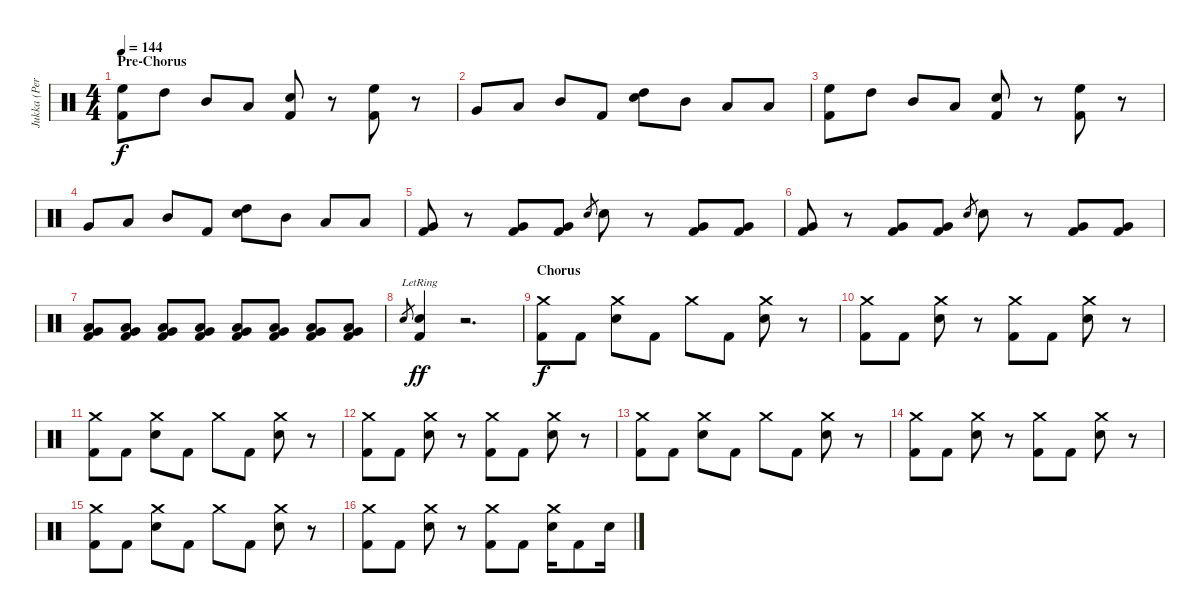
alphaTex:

\track ("Jukka (Percussion)" "Jukka (Per") {instrument percussion}
\staff {score}
\articulation defaults
\ts (4 4)
\section ("" "Pre-Chorus")
\tempo 144
\clef neutral
\ks c
("High Floor Tom (hit)" "Kick (hit) 2").8{dy f} "High Tom (hit)".8 "Mid Tom (hit)".8 "Low Tom (hit)".8 ("Electric Snare (hit)" "Kick (hit) 2").8 r.8 ("High Floor Tom (hit)" "Kick (hit) 2").8 r.8 |
"Very Low Tom (hit)".8 "Low Tom (hit)".8 "Mid Tom (hit)".8 "Kick (hit) 2".8 ("High Tom (hit)" "Electric Snare (hit)").8 "Mid Tom (hit)".8 "Low Tom (hit)".8 "Low Floor Tom (hit)".8 |
("High Floor Tom (hit)" "Kick (hit) 2").8 "High Tom (hit)".8 "Mid Tom (hit)".8 "Low Tom (hit)".8 ("Electric Snare (hit)" "Kick (hit) 2").8 r.8 ("High Floor Tom (hit)" "Kick (hit) 2").8 r.8 |
"Very Low Tom (hit)".8 "Low Tom (hit)".8 "Mid Tom (hit)".8 "Kick (hit) 2".8 ("High Tom (hit)" "Electric Snare (hit)").8 "Mid Tom (hit)".8 "Low Tom (hit)".8 "Low Floor Tom (hit)".8 |
("Very Low Tom (hit)" "Kick (hit) 2").8 r.8 ("Very Low Tom (hit)" "Kick (hit) 2").8 ("Very Low Tom (hit)" "Kick (hit) 2").8 "Electric Snare (hit)".8{gr} "Electric Snare (hit)".8 r.8 ("Very Low Tom (hit)" "Kick (hit) 2").8 ("Very Low Tom (hit)" "Kick (hit) 2").8 |
("Very Low Tom (hit)" "Kick (hit) 2").8 r.8 ("Very Low Tom (hit)" "Kick (hit) 2").8 ("Very Low Tom (hit)" "Kick (hit) 2").8 "Electric Snare (hit)".8{gr} "Electric Snare (hit)".8 r.8 ("Very Low Tom (hit)" "Kick (hit) 2").8 ("Very Low Tom (hit)" "Kick (hit) 2").8 |
("Low Tom (hit)" "Very Low Tom (hit)" "Kick (hit) 2").8{volume 6} ("Low Tom (hit)" "Very Low Tom (hit)" "Kick (hit) 2").8{volume 14} ("Low Tom (hit)" "Very Low Tom (hit)" "Kick (hit) 2").8 ("Low Tom (hit)" "Very Low Tom (hit)" "Kick (hit) 2").8 ("Low Tom (hit)" "Very Low Tom (hit)" "Kick (hit) 2").8 ("Low Tom (hit)" "Very Low Tom (hit)" "Kick (hit) 2").8 ("Low Tom (hit)" "Very Low Tom (hit)" "Kick (hit) 2").8 ("Low Tom (hit)" "Very Low Tom (hit)" "Kick (hit) 2").8 |
"Electric Snare (hit)".8{gr} ("Electric Snare (hit)"{lr} "Kick (hit) 2"{lr}).4{dy ff} r.2{d} |
\section ("" "Chorus")
("Crash medium (hit)" "Kick (hit) 2").8{dy f} "Kick (hit) 2".8 ("Crash medium (hit)" "Electric Snare (hit)").8 "Kick (hit) 2".8 "Crash medium (hit)".8 "Kick (hit) 2".8 ("Crash medium (hit)" "Electric Snare (hit)").8 r.8 |
("Crash medium (hit)" "Kick (hit) 2").8 "Kick (hit) 2".8 ("Crash medium (hit)" "Electric Snare (hit)").8 r.8 ("Crash medium (hit)" "Kick (hit) 2").8 "Kick (hit) 2".8 ("Crash medium (hit)" "Electric Snare (hit)").8 r.8 |
("Crash medium (hit)" "Kick (hit) 2").8 "Kick (hit) 2".8 ("Crash medium (hit)" "Electric Snare (hit)").8 "Kick (hit) 2".8 "Crash medium (hit)".8 "Kick (hit) 2".8 ("Crash medium (hit)" "Electric Snare (hit)").8 r.8 |
("Crash medium (hit)" "Kick (hit) 2").8 "Kick (hit) 2".8 ("Crash medium (hit)" "Electric Snare (hit)").8 r.8 ("Crash medium (hit)" "Kick (hit) 2").8 "Kick (hit) 2".8 ("Crash medium (hit)" "Electric Snare (hit)").8 r.8 |
("Crash medium (hit)" "Kick (hit) 2").8 "Kick (hit) 2".8 ("Crash medium (hit)" "Electric Snare (hit)").8 "Kick (hit) 2".8 "Crash medium (hit)".8 "Kick (hit) 2".8 ("Crash medium (hit)" "Electric Snare (hit)").8 r.8 |
("Crash medium (hit)" "Kick (hit) 2").8 "Kick (hit) 2".8 ("Crash medium (hit)" "Electric Snare (hit)").8 r.8 ("Crash medium (hit)" "Kick (hit) 2").8 "Kick (hit) 2".8 ("Crash medium (hit)" "Electric Snare (hit)").8 r.8 |
("Crash medium (hit)" "Kick (hit) 2").8 "Kick (hit) 2".8 ("Crash medium (hit)" "Electric Snare (hit)").8 "Kick (hit) 2".8 "Crash medium (hit)".8 "Kick (hit) 2".8 ("Crash medium (hit)" "Electric Snare (hit)").8 r.8 |
("Crash medium (hit)" "Kick (hit) 2").8 "Kick (hit) 2".8 ("Crash medium (hit)" "Electric Snare (hit)").8 r.8 ("Crash medium (hit)" "Kick (hit) 2").8 "Kick (hit) 2".8 ("Crash medium (hit)" "Electric Snare (hit)").16 "Kick (hit) 2".8 "Electric Snare (hit)".16
